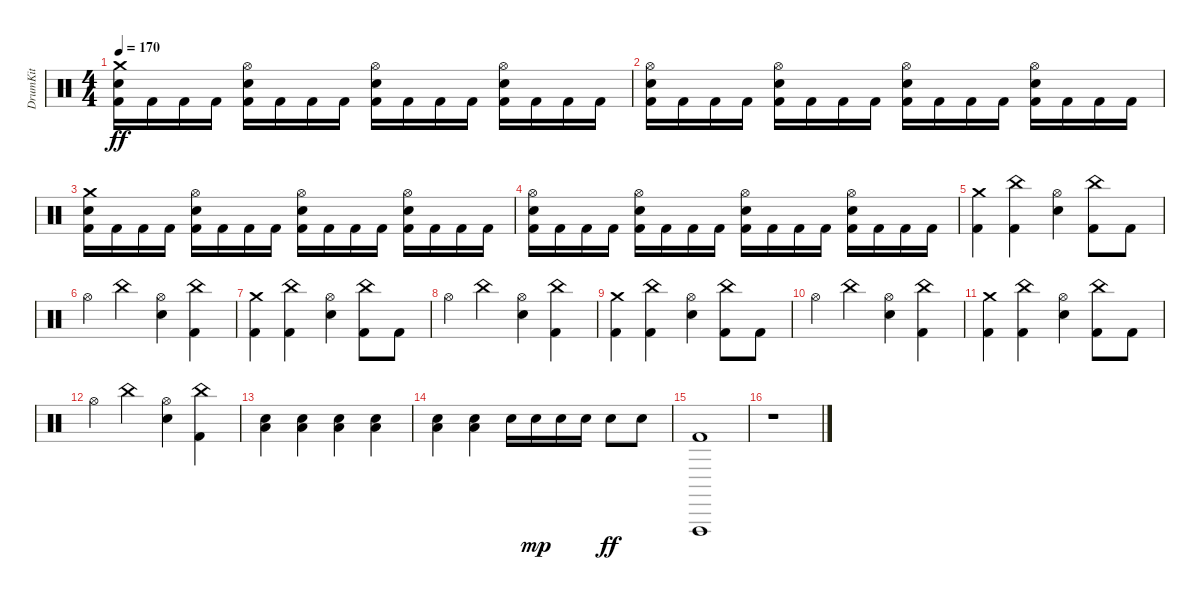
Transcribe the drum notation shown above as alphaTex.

\track ("DrumKit" "DrumKit") {instrument percussion}
\staff {score}
\articulation defaults
\ts (4 4)
\tempo 170
\clef neutral
\ks c
("Kick (hit) 2" "Snare (hit) 2" "Crash medium (hit)").16{dy ff} "Kick (hit) 2".16 "Kick (hit) 2".16 "Kick (hit) 2".16 ("Kick (hit) 2" "Snare (hit) 2" "Hi-Hat (open)").16 "Kick (hit) 2".16 "Kick (hit) 2".16 "Kick (hit) 2".16 ("Kick (hit) 2" "Snare (hit) 2" "Hi-Hat (open)").16 "Kick (hit) 2".16 "Kick (hit) 2".16 "Kick (hit) 2".16 ("Kick (hit) 2" "Snare (hit) 2" "Hi-Hat (open)").16 "Kick (hit) 2".16 "Kick (hit) 2".16 "Kick (hit) 2".16 |
("Kick (hit) 2" "Snare (hit) 2" "Hi-Hat (open)").16 "Kick (hit) 2".16 "Kick (hit) 2".16 "Kick (hit) 2".16 ("Kick (hit) 2" "Snare (hit) 2" "Hi-Hat (open)").16 "Kick (hit) 2".16 "Kick (hit) 2".16 "Kick (hit) 2".16 ("Kick (hit) 2" "Snare (hit) 2" "Hi-Hat (open)").16 "Kick (hit) 2".16 "Kick (hit) 2".16 "Kick (hit) 2".16 ("Kick (hit) 2" "Snare (hit) 2" "Hi-Hat (open)").16 "Kick (hit) 2".16 "Kick (hit) 2".16 "Kick (hit) 2".16 |
("Kick (hit) 2" "Snare (hit) 2" "Crash medium (hit)").16 "Kick (hit) 2".16 "Kick (hit) 2".16 "Kick (hit) 2".16 ("Kick (hit) 2" "Snare (hit) 2" "Hi-Hat (open)").16 "Kick (hit) 2".16 "Kick (hit) 2".16 "Kick (hit) 2".16 ("Kick (hit) 2" "Snare (hit) 2" "Hi-Hat (open)").16 "Kick (hit) 2".16 "Kick (hit) 2".16 "Kick (hit) 2".16 ("Kick (hit) 2" "Snare (hit) 2" "Hi-Hat (open)").16 "Kick (hit) 2".16 "Kick (hit) 2".16 "Kick (hit) 2".16 |
("Kick (hit) 2" "Snare (hit) 2" "Hi-Hat (open)").16 "Kick (hit) 2".16 "Kick (hit) 2".16 "Kick (hit) 2".16 ("Kick (hit) 2" "Snare (hit) 2" "Hi-Hat (open)").16 "Kick (hit) 2".16 "Kick (hit) 2".16 "Kick (hit) 2".16 ("Kick (hit) 2" "Snare (hit) 2" "Hi-Hat (open)").16 "Kick (hit) 2".16 "Kick (hit) 2".16 "Kick (hit) 2".16 ("Kick (hit) 2" "Snare (hit) 2" "Hi-Hat (open)").16 "Kick (hit) 2".16 "Kick (hit) 2".16 "Kick (hit) 2".16 |
("Kick (hit) 2" "Crash medium (hit)").4 ("Kick (hit) 2" "China (hit)").4 ("Snare (hit) 2" "Hi-Hat (open)").4 ("Kick (hit) 2" "China (hit)").8 "Kick (hit) 2".8 |
"Hi-Hat (open)".4 "China (hit)".4 ("Snare (hit) 2" "Hi-Hat (open)").4 ("Kick (hit) 2" "China (hit)").4 |
("Kick (hit) 2" "Crash medium (hit)").4 ("Kick (hit) 2" "China (hit)").4 ("Snare (hit) 2" "Hi-Hat (open)").4 ("Kick (hit) 2" "China (hit)").8 "Kick (hit) 2".8 |
"Hi-Hat (open)".4 "China (hit)".4 ("Snare (hit) 2" "Hi-Hat (open)").4 ("Kick (hit) 2" "China (hit)").4 |
("Kick (hit) 2" "Crash medium (hit)").4 ("Kick (hit) 2" "China (hit)").4 ("Snare (hit) 2" "Hi-Hat (open)").4 ("Kick (hit) 2" "China (hit)").8 "Kick (hit) 2".8 |
"Hi-Hat (open)".4 "China (hit)".4 ("Snare (hit) 2" "Hi-Hat (open)").4 ("Kick (hit) 2" "China (hit)").4 |
("Kick (hit) 2" "Crash medium (hit)").4 ("Kick (hit) 2" "China (hit)").4 ("Snare (hit) 2" "Hi-Hat (open)").4 ("Kick (hit) 2" "China (hit)").8 "Kick (hit) 2".8 |
"Hi-Hat (open)".4 "China (hit)".4 ("Snare (hit) 2" "Hi-Hat (open)").4 ("Kick (hit) 2" "China (hit)").4 |
("Snare (hit) 2" "Low Floor Tom (hit)").4 ("Snare (hit) 2" "Low Floor Tom (hit)").4 ("Snare (hit) 2" "Low Floor Tom (hit)").4 ("Snare (hit) 2" "Low Floor Tom (hit)").4 |
("Snare (hit) 2" "Low Floor Tom (hit)").4 ("Snare (hit) 2" "Low Floor Tom (hit)").4 "Snare (hit) 2".16 "Snare (hit) 2".16{dy mp} "Snare (hit) 2".16 "Snare (hit) 2".16 "Snare (hit) 2".8{dy ff} "Snare (hit) 2".8 |
("Kick (hit) 2" "Vibraslap (hit)").1 |
r.1
